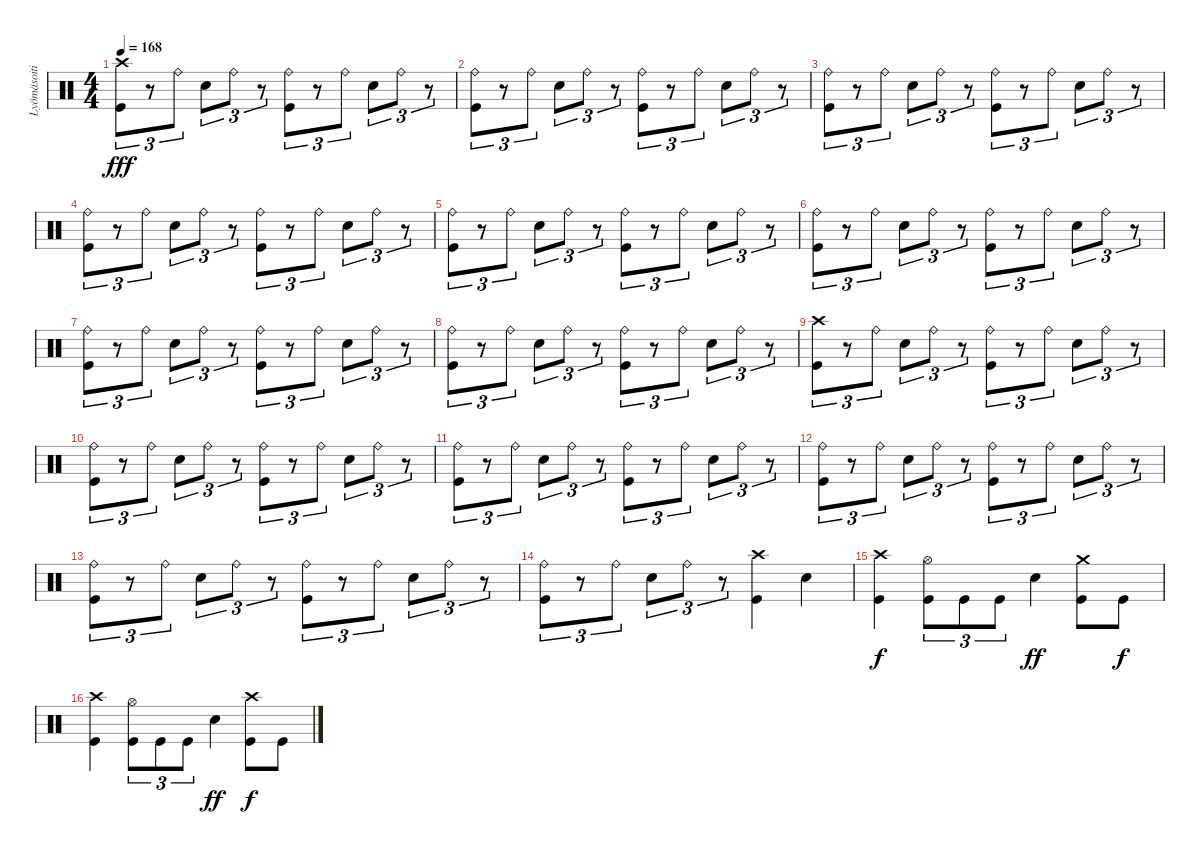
\track ("Lyömäsoitin" "Lyömäsoiti") {instrument percussion}
\staff {score}
\articulation defaults
\ts (4 4)
\tempo 168
\clef neutral
\ks c
("Crash high (hit)" "Kick (hit)").8{tu (3 2) dy fff} r.8{tu (3 2)} "Ride (bell)".8{tu (3 2)} "Electric Snare (hit)".8{tu (3 2)} "Ride (bell)".8{tu (3 2)} r.8{tu (3 2)} ("Ride (bell)" "Kick (hit)").8{tu (3 2)} r.8{tu (3 2)} "Ride (bell)".8{tu (3 2)} "Electric Snare (hit)".8{tu (3 2)} "Ride (bell)".8{tu (3 2)} r.8{tu (3 2)} |
("Ride (bell)" "Kick (hit)").8{tu (3 2)} r.8{tu (3 2)} "Ride (bell)".8{tu (3 2)} "Electric Snare (hit)".8{tu (3 2)} "Ride (bell)".8{tu (3 2)} r.8{tu (3 2)} ("Ride (bell)" "Kick (hit)").8{tu (3 2)} r.8{tu (3 2)} "Ride (bell)".8{tu (3 2)} "Electric Snare (hit)".8{tu (3 2)} "Ride (bell)".8{tu (3 2)} r.8{tu (3 2)} |
("Ride (bell)" "Kick (hit)").8{tu (3 2)} r.8{tu (3 2)} "Ride (bell)".8{tu (3 2)} "Electric Snare (hit)".8{tu (3 2)} "Ride (bell)".8{tu (3 2)} r.8{tu (3 2)} ("Ride (bell)" "Kick (hit)").8{tu (3 2)} r.8{tu (3 2)} "Ride (bell)".8{tu (3 2)} "Electric Snare (hit)".8{tu (3 2)} "Ride (bell)".8{tu (3 2)} r.8{tu (3 2)} |
("Ride (bell)" "Kick (hit)").8{tu (3 2)} r.8{tu (3 2)} "Ride (bell)".8{tu (3 2)} "Electric Snare (hit)".8{tu (3 2)} "Ride (bell)".8{tu (3 2)} r.8{tu (3 2)} ("Ride (bell)" "Kick (hit)").8{tu (3 2)} r.8{tu (3 2)} "Ride (bell)".8{tu (3 2)} "Electric Snare (hit)".8{tu (3 2)} "Ride (bell)".8{tu (3 2)} r.8{tu (3 2)} |
("Ride (bell)" "Kick (hit)").8{tu (3 2)} r.8{tu (3 2)} "Ride (bell)".8{tu (3 2)} "Electric Snare (hit)".8{tu (3 2)} "Ride (bell)".8{tu (3 2)} r.8{tu (3 2)} ("Ride (bell)" "Kick (hit)").8{tu (3 2)} r.8{tu (3 2)} "Ride (bell)".8{tu (3 2)} "Electric Snare (hit)".8{tu (3 2)} "Ride (bell)".8{tu (3 2)} r.8{tu (3 2)} |
("Ride (bell)" "Kick (hit)").8{tu (3 2)} r.8{tu (3 2)} "Ride (bell)".8{tu (3 2)} "Electric Snare (hit)".8{tu (3 2)} "Ride (bell)".8{tu (3 2)} r.8{tu (3 2)} ("Ride (bell)" "Kick (hit)").8{tu (3 2)} r.8{tu (3 2)} "Ride (bell)".8{tu (3 2)} "Electric Snare (hit)".8{tu (3 2)} "Ride (bell)".8{tu (3 2)} r.8{tu (3 2)} |
("Ride (bell)" "Kick (hit)").8{tu (3 2)} r.8{tu (3 2)} "Ride (bell)".8{tu (3 2)} "Electric Snare (hit)".8{tu (3 2)} "Ride (bell)".8{tu (3 2)} r.8{tu (3 2)} ("Ride (bell)" "Kick (hit)").8{tu (3 2)} r.8{tu (3 2)} "Ride (bell)".8{tu (3 2)} "Electric Snare (hit)".8{tu (3 2)} "Ride (bell)".8{tu (3 2)} r.8{tu (3 2)} |
("Ride (bell)" "Kick (hit)").8{tu (3 2)} r.8{tu (3 2)} "Ride (bell)".8{tu (3 2)} "Electric Snare (hit)".8{tu (3 2)} "Ride (bell)".8{tu (3 2)} r.8{tu (3 2)} ("Ride (bell)" "Kick (hit)").8{tu (3 2)} r.8{tu (3 2)} "Ride (bell)".8{tu (3 2)} "Electric Snare (hit)".8{tu (3 2)} "Ride (bell)".8{tu (3 2)} r.8{tu (3 2)} |
("Crash high (hit)" "Kick (hit)").8{tu (3 2)} r.8{tu (3 2)} "Ride (bell)".8{tu (3 2)} "Electric Snare (hit)".8{tu (3 2)} "Ride (bell)".8{tu (3 2)} r.8{tu (3 2)} ("Ride (bell)" "Kick (hit)").8{tu (3 2)} r.8{tu (3 2)} "Ride (bell)".8{tu (3 2)} "Electric Snare (hit)".8{tu (3 2)} "Ride (bell)".8{tu (3 2)} r.8{tu (3 2)} |
("Ride (bell)" "Kick (hit)").8{tu (3 2)} r.8{tu (3 2)} "Ride (bell)".8{tu (3 2)} "Electric Snare (hit)".8{tu (3 2)} "Ride (bell)".8{tu (3 2)} r.8{tu (3 2)} ("Ride (bell)" "Kick (hit)").8{tu (3 2)} r.8{tu (3 2)} "Ride (bell)".8{tu (3 2)} "Electric Snare (hit)".8{tu (3 2)} "Ride (bell)".8{tu (3 2)} r.8{tu (3 2)} |
("Ride (bell)" "Kick (hit)").8{tu (3 2)} r.8{tu (3 2)} "Ride (bell)".8{tu (3 2)} "Electric Snare (hit)".8{tu (3 2)} "Ride (bell)".8{tu (3 2)} r.8{tu (3 2)} ("Ride (bell)" "Kick (hit)").8{tu (3 2)} r.8{tu (3 2)} "Ride (bell)".8{tu (3 2)} "Electric Snare (hit)".8{tu (3 2)} "Ride (bell)".8{tu (3 2)} r.8{tu (3 2)} |
("Ride (bell)" "Kick (hit)").8{tu (3 2)} r.8{tu (3 2)} "Ride (bell)".8{tu (3 2)} "Electric Snare (hit)".8{tu (3 2)} "Ride (bell)".8{tu (3 2)} r.8{tu (3 2)} ("Ride (bell)" "Kick (hit)").8{tu (3 2)} r.8{tu (3 2)} "Ride (bell)".8{tu (3 2)} "Electric Snare (hit)".8{tu (3 2)} "Ride (bell)".8{tu (3 2)} r.8{tu (3 2)} |
("Ride (bell)" "Kick (hit)").8{tu (3 2)} r.8{tu (3 2)} "Ride (bell)".8{tu (3 2)} "Electric Snare (hit)".8{tu (3 2)} "Ride (bell)".8{tu (3 2)} r.8{tu (3 2)} ("Ride (bell)" "Kick (hit)").8{tu (3 2)} r.8{tu (3 2)} "Ride (bell)".8{tu (3 2)} "Electric Snare (hit)".8{tu (3 2)} "Ride (bell)".8{tu (3 2)} r.8{tu (3 2)} |
("Ride (bell)" "Kick (hit)").8{tu (3 2)} r.8{tu (3 2)} "Ride (bell)".8{tu (3 2)} "Electric Snare (hit)".8{tu (3 2)} "Ride (bell)".8{tu (3 2)} r.8{tu (3 2)} ("Crash high (hit)" "Kick (hit)").4 "Electric Snare (hit)".4 |
("Crash high (hit)" "Kick (hit)").4{dy f} ("Hi-Hat (open)" "Kick (hit)").8{tu (3 2)} "Kick (hit)".8{tu (3 2)} "Kick (hit)".8{tu (3 2)} "Electric Snare (hit)".4{dy ff} ("Crash medium (hit)" "Kick (hit)").8 "Kick (hit)".8{dy f} |
("Crash high (hit)" "Kick (hit)").4 ("Hi-Hat (open)" "Kick (hit)").8{tu (3 2)} "Kick (hit)".8{tu (3 2)} "Kick (hit)".8{tu (3 2)} "Electric Snare (hit)".4{dy ff} ("Crash high (hit)" "Kick (hit)").8{dy f} "Kick (hit)".8
